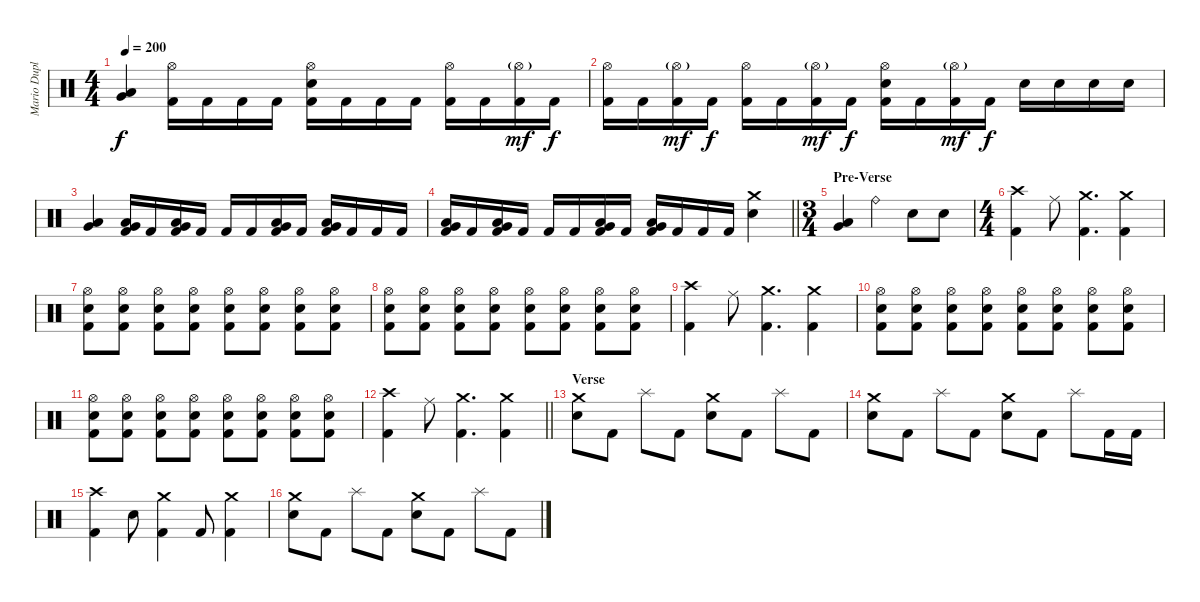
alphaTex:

\track ("Mario Duplantier" "Mario Dupl") {instrument percussion}
\staff {score}
\articulation defaults
\ts (4 4)
\tempo 200
\clef neutral
\ks c
("Low Floor Tom (hit)" "Very Low Tom (hit)").4{dy f} ("Hi-Hat (open)" "Kick (hit) 2").16 "Kick (hit) 2".16 "Kick (hit) 2".16 "Kick (hit) 2".16 ("Hi-Hat (open)" "Electric Snare (hit)" "Kick (hit) 2").16 "Kick (hit) 2".16 "Kick (hit) 2".16 "Kick (hit) 2".16 ("Hi-Hat (open)" "Kick (hit) 2").16 "Kick (hit) 2".16 ("Hi-Hat (open)"{g} "Kick (hit) 2").16{dy mf} "Kick (hit) 2".16{dy f} |
("Hi-Hat (open)" "Kick (hit) 2").16 "Kick (hit) 2".16 ("Hi-Hat (open)"{g} "Kick (hit) 2").16{dy mf} "Kick (hit) 2".16{dy f} ("Hi-Hat (open)" "Kick (hit) 2").16 "Kick (hit) 2".16 ("Hi-Hat (open)"{g} "Kick (hit) 2").16{dy mf} "Kick (hit) 2".16{dy f} ("Hi-Hat (open)" "Electric Snare (hit)" "Kick (hit) 2").16 "Kick (hit) 2".16 ("Hi-Hat (open)"{g} "Kick (hit) 2").16{dy mf} "Kick (hit) 2".16{dy f} "Electric Snare (hit)".16 "Electric Snare (hit)".16 "Electric Snare (hit)".16 "Electric Snare (hit)".16 |
("Very Low Tom (hit)" "Low Floor Tom (hit)").4 ("Very Low Tom (hit)" "Low Floor Tom (hit)" "Kick (hit) 2").16 "Kick (hit) 2".16 ("Very Low Tom (hit)" "Low Floor Tom (hit)" "Kick (hit) 2").16 "Kick (hit) 2".16 "Kick (hit) 2".16 "Kick (hit) 2".16 ("Very Low Tom (hit)" "Low Floor Tom (hit)" "Kick (hit) 2").16 "Kick (hit) 2".16 ("Very Low Tom (hit)" "Low Floor Tom (hit)" "Kick (hit) 2").16 "Kick (hit) 2".16 "Kick (hit) 2".16 "Kick (hit) 2".16 |
\barLineRight lightlight
("Very Low Tom (hit)" "Low Floor Tom (hit)" "Kick (hit) 2").16 "Kick (hit) 2".16 ("Very Low Tom (hit)" "Low Floor Tom (hit)" "Kick (hit) 2").16 "Kick (hit) 2".16 "Kick (hit) 2".16 "Kick (hit) 2".16 ("Very Low Tom (hit)" "Low Floor Tom (hit)" "Kick (hit) 2").16 "Kick (hit) 2".16 ("Very Low Tom (hit)" "Low Floor Tom (hit)" "Kick (hit) 2").16 "Kick (hit) 2".16 "Kick (hit) 2".16 "Kick (hit) 2".16 ("Crash medium (hit)" "Electric Snare (hit)").4 |
\ts (3 4)
\section ("" "Pre-Verse")
("Low Floor Tom (hit)" "Very Low Tom (hit)").4 "Ride (bell)".4 "Electric Snare (hit)".8 "Electric Snare (hit)".8 |
\ts (4 4)
("Crash high (hit)" "Kick (hit) 2").4 "Ride (middle)".8 ("Crash medium (hit)" "Kick (hit) 2").4{d} ("Crash medium (hit)" "Kick (hit) 2").4 |
("Hi-Hat (open)" "Electric Snare (hit)" "Kick (hit) 2").8 ("Hi-Hat (open)" "Electric Snare (hit)" "Kick (hit) 2").8 ("Hi-Hat (open)" "Electric Snare (hit)" "Kick (hit) 2").8 ("Hi-Hat (open)" "Electric Snare (hit)" "Kick (hit) 2").8 ("Hi-Hat (open)" "Electric Snare (hit)" "Kick (hit) 2").8 ("Hi-Hat (open)" "Electric Snare (hit)" "Kick (hit) 2").8 ("Hi-Hat (open)" "Electric Snare (hit)" "Kick (hit) 2").8 ("Hi-Hat (open)" "Electric Snare (hit)" "Kick (hit) 2").8 |
("Hi-Hat (open)" "Electric Snare (hit)" "Kick (hit) 2").8 ("Hi-Hat (open)" "Electric Snare (hit)" "Kick (hit) 2").8 ("Hi-Hat (open)" "Electric Snare (hit)" "Kick (hit) 2").8 ("Hi-Hat (open)" "Electric Snare (hit)" "Kick (hit) 2").8 ("Hi-Hat (open)" "Electric Snare (hit)" "Kick (hit) 2").8 ("Hi-Hat (open)" "Electric Snare (hit)" "Kick (hit) 2").8 ("Hi-Hat (open)" "Electric Snare (hit)" "Kick (hit) 2").8 ("Hi-Hat (open)" "Electric Snare (hit)" "Kick (hit) 2").8 |
("Crash high (hit)" "Kick (hit) 2").4 "Ride (middle)".8 ("Crash medium (hit)" "Kick (hit) 2").4{d} ("Crash medium (hit)" "Kick (hit) 2").4 |
("Hi-Hat (open)" "Electric Snare (hit)" "Kick (hit) 2").8 ("Hi-Hat (open)" "Electric Snare (hit)" "Kick (hit) 2").8 ("Hi-Hat (open)" "Electric Snare (hit)" "Kick (hit) 2").8 ("Hi-Hat (open)" "Electric Snare (hit)" "Kick (hit) 2").8 ("Hi-Hat (open)" "Electric Snare (hit)" "Kick (hit) 2").8 ("Hi-Hat (open)" "Electric Snare (hit)" "Kick (hit) 2").8 ("Hi-Hat (open)" "Electric Snare (hit)" "Kick (hit) 2").8 ("Hi-Hat (open)" "Electric Snare (hit)" "Kick (hit) 2").8 |
("Hi-Hat (open)" "Electric Snare (hit)" "Kick (hit) 2").8 ("Hi-Hat (open)" "Electric Snare (hit)" "Kick (hit) 2").8 ("Hi-Hat (open)" "Electric Snare (hit)" "Kick (hit) 2").8 ("Hi-Hat (open)" "Electric Snare (hit)" "Kick (hit) 2").8 ("Hi-Hat (open)" "Electric Snare (hit)" "Kick (hit) 2").8 ("Hi-Hat (open)" "Electric Snare (hit)" "Kick (hit) 2").8 ("Hi-Hat (open)" "Electric Snare (hit)" "Kick (hit) 2").8 ("Hi-Hat (open)" "Electric Snare (hit)" "Kick (hit) 2").8 |
\barLineRight lightlight
("Crash high (hit)" "Kick (hit) 2").4 "Ride (middle)".8 ("Crash medium (hit)" "Kick (hit) 2").4{d} ("Crash medium (hit)" "Kick (hit) 2").4 |
\section ("" "Verse")
("Crash medium (hit)" "Electric Snare (hit)").8 "Kick (hit) 2".8 "Splash (hit)".8 "Kick (hit) 2".8 ("Crash medium (hit)" "Electric Snare (hit)").8 "Kick (hit) 2".8 "Splash (hit)".8 "Kick (hit) 2".8 |
("Crash medium (hit)" "Electric Snare (hit)").8 "Kick (hit) 2".8 "Splash (hit)".8 "Kick (hit) 2".8 ("Crash medium (hit)" "Electric Snare (hit)").8 "Kick (hit) 2".8 "Splash (hit)".8 "Kick (hit) 2".16 "Kick (hit) 2".16 |
("Crash high (hit)" "Kick (hit) 2").4 "Electric Snare (hit)".8 ("Crash medium (hit)" "Kick (hit) 2").4 "Kick (hit) 2".8 ("Crash medium (hit)" "Kick (hit) 2").4 |
("Crash medium (hit)" "Electric Snare (hit)").8 "Kick (hit) 2".8 "Splash (hit)".8 "Kick (hit) 2".8 ("Crash medium (hit)" "Electric Snare (hit)").8 "Kick (hit) 2".8 "Splash (hit)".8 "Kick (hit) 2".8
